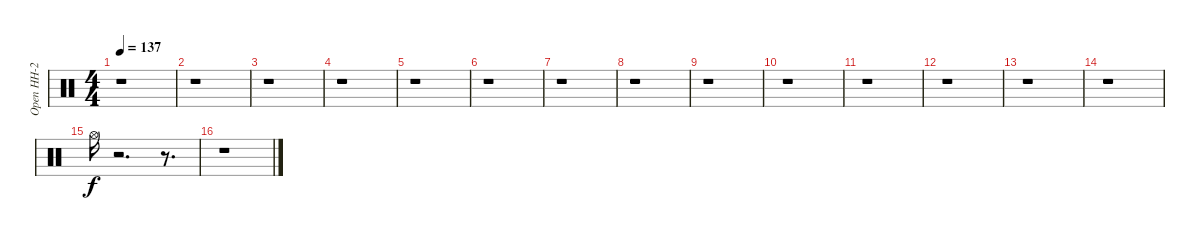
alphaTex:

\track ("Open HH-2" "Open HH-2") {instrument percussion}
\staff {score}
\articulation defaults
\ts (4 4)
\tempo 137
\clef neutral
\ks c
r.1{dy f} |
r.1 |
r.1 |
r.1 |
r.1 |
r.1 |
r.1 |
r.1 |
r.1 |
r.1 |
r.1 |
r.1 |
r.1 |
r.1 |
"Hi-Hat (open)".16 r.2{d} r.8{d} |
r.1
